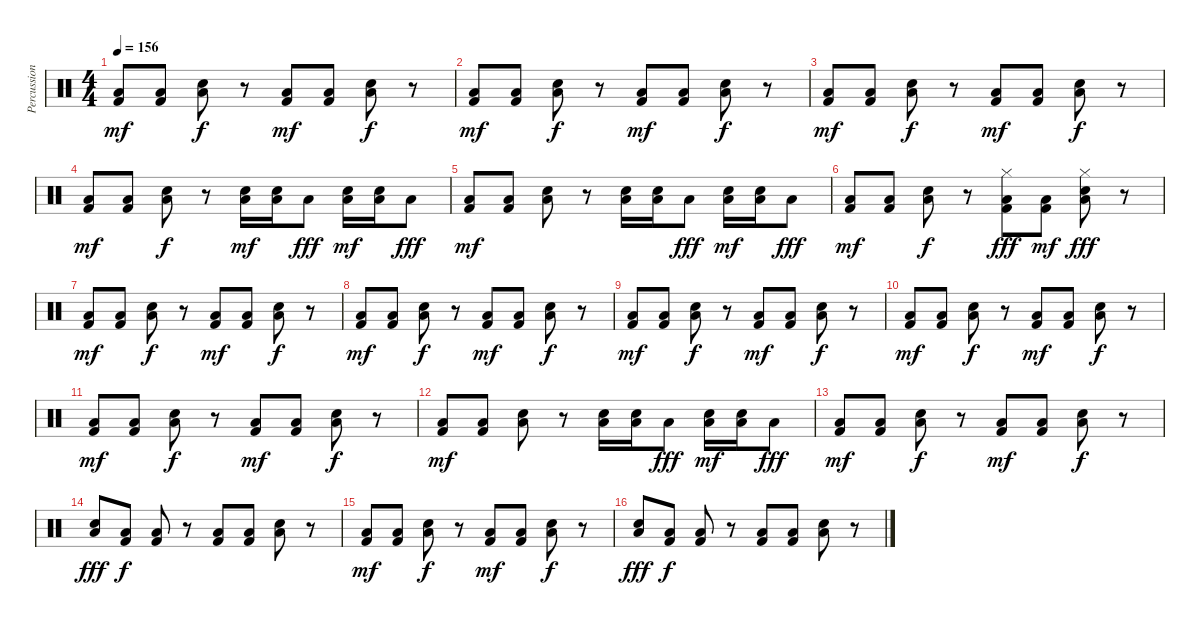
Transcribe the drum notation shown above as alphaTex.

\track ("Percussion" "Percussion") {instrument percussion}
\staff {score}
\articulation defaults
\ts (4 4)
\tempo 156
\clef neutral
\ks c
("Low Floor Tom (hit)" "Kick (hit) 2").8{dy mf} ("Low Floor Tom (hit)" "Kick (hit) 2").8 ("Low Floor Tom (hit)" "Electric Snare (hit)").8{dy f} r.8 ("Low Floor Tom (hit)" "Kick (hit) 2").8{dy mf} ("Low Floor Tom (hit)" "Kick (hit) 2").8 ("Low Floor Tom (hit)" "Electric Snare (hit)").8{dy f} r.8 |
("Low Floor Tom (hit)" "Kick (hit) 2").8{dy mf} ("Low Floor Tom (hit)" "Kick (hit) 2").8 ("Low Floor Tom (hit)" "Electric Snare (hit)").8{dy f} r.8 ("Low Floor Tom (hit)" "Kick (hit) 2").8{dy mf} ("Low Floor Tom (hit)" "Kick (hit) 2").8 ("Low Floor Tom (hit)" "Electric Snare (hit)").8{dy f} r.8 |
("Low Floor Tom (hit)" "Kick (hit) 2").8{dy mf} ("Low Floor Tom (hit)" "Kick (hit) 2").8 ("Low Floor Tom (hit)" "Electric Snare (hit)").8{dy f} r.8 ("Low Floor Tom (hit)" "Kick (hit) 2").8{dy mf} ("Low Floor Tom (hit)" "Kick (hit) 2").8 ("Low Floor Tom (hit)" "Electric Snare (hit)").8{dy f} r.8 |
("Low Floor Tom (hit)" "Kick (hit) 2").8{dy mf} ("Low Floor Tom (hit)" "Kick (hit) 2").8 ("Low Floor Tom (hit)" "Electric Snare (hit)").8{dy f} r.8 ("Low Floor Tom (hit)" "Electric Snare (hit)").16{dy mf} ("Low Floor Tom (hit)" "Electric Snare (hit)").16 "Low Floor Tom (hit)".8{dy fff} ("Low Floor Tom (hit)" "Electric Snare (hit)").16{dy mf} ("Low Floor Tom (hit)" "Electric Snare (hit)").16 "Low Floor Tom (hit)".8{dy fff} |
("Low Floor Tom (hit)" "Kick (hit) 2").8{dy mf} ("Low Floor Tom (hit)" "Kick (hit) 2").8 ("Low Floor Tom (hit)" "Electric Snare (hit)").8 r.8 ("Low Floor Tom (hit)" "Electric Snare (hit)").16 ("Low Floor Tom (hit)" "Electric Snare (hit)").16 "Low Floor Tom (hit)".8{dy fff} ("Low Floor Tom (hit)" "Electric Snare (hit)").16{dy mf} ("Low Floor Tom (hit)" "Electric Snare (hit)").16 "Low Floor Tom (hit)".8{dy fff} |
("Low Floor Tom (hit)" "Kick (hit) 2").8{dy mf} ("Low Floor Tom (hit)" "Kick (hit) 2").8 ("Low Floor Tom (hit)" "Electric Snare (hit)").8{dy f} r.8 ("Low Floor Tom (hit)" "Kick (hit) 2" "Hi-Hat (closed)").8{dy fff} ("Low Floor Tom (hit)" "Kick (hit) 2").8{dy mf} ("Low Floor Tom (hit)" "Electric Snare (hit)" "Hi-Hat (closed)").8{dy fff} r.8 |
("Low Floor Tom (hit)" "Kick (hit) 2").8{dy mf} ("Low Floor Tom (hit)" "Kick (hit) 2").8 ("Low Floor Tom (hit)" "Electric Snare (hit)").8{dy f} r.8 ("Low Floor Tom (hit)" "Kick (hit) 2").8{dy mf} ("Low Floor Tom (hit)" "Kick (hit) 2").8 ("Low Floor Tom (hit)" "Electric Snare (hit)").8{dy f} r.8 |
("Low Floor Tom (hit)" "Kick (hit) 2").8{dy mf} ("Low Floor Tom (hit)" "Kick (hit) 2").8 ("Low Floor Tom (hit)" "Electric Snare (hit)").8{dy f} r.8 ("Low Floor Tom (hit)" "Kick (hit) 2").8{dy mf} ("Low Floor Tom (hit)" "Kick (hit) 2").8 ("Low Floor Tom (hit)" "Electric Snare (hit)").8{dy f} r.8 |
("Low Floor Tom (hit)" "Kick (hit) 2").8{dy mf} ("Low Floor Tom (hit)" "Kick (hit) 2").8 ("Low Floor Tom (hit)" "Electric Snare (hit)").8{dy f} r.8 ("Low Floor Tom (hit)" "Kick (hit) 2").8{dy mf} ("Low Floor Tom (hit)" "Kick (hit) 2").8 ("Low Floor Tom (hit)" "Electric Snare (hit)").8{dy f} r.8 |
("Low Floor Tom (hit)" "Kick (hit) 2").8{dy mf} ("Low Floor Tom (hit)" "Kick (hit) 2").8 ("Low Floor Tom (hit)" "Electric Snare (hit)").8{dy f} r.8 ("Low Floor Tom (hit)" "Kick (hit) 2").8{dy mf} ("Low Floor Tom (hit)" "Kick (hit) 2").8 ("Low Floor Tom (hit)" "Electric Snare (hit)").8{dy f} r.8 |
("Low Floor Tom (hit)" "Kick (hit) 2").8{dy mf} ("Low Floor Tom (hit)" "Kick (hit) 2").8 ("Low Floor Tom (hit)" "Electric Snare (hit)").8{dy f} r.8 ("Low Floor Tom (hit)" "Kick (hit) 2").8{dy mf} ("Low Floor Tom (hit)" "Kick (hit) 2").8 ("Low Floor Tom (hit)" "Electric Snare (hit)").8{dy f} r.8 |
("Low Floor Tom (hit)" "Kick (hit) 2").8{dy mf} ("Low Floor Tom (hit)" "Kick (hit) 2").8 ("Low Floor Tom (hit)" "Electric Snare (hit)").8 r.8 ("Low Floor Tom (hit)" "Electric Snare (hit)").16 ("Low Floor Tom (hit)" "Electric Snare (hit)").16 "Low Floor Tom (hit)".8{dy fff} ("Low Floor Tom (hit)" "Electric Snare (hit)").16{dy mf} ("Low Floor Tom (hit)" "Electric Snare (hit)").16 "Low Floor Tom (hit)".8{dy fff} |
("Low Floor Tom (hit)" "Kick (hit) 2").8{dy mf} ("Low Floor Tom (hit)" "Kick (hit) 2").8 ("Low Floor Tom (hit)" "Electric Snare (hit)").8{dy f} r.8 ("Low Floor Tom (hit)" "Kick (hit) 2").8{dy mf} ("Low Floor Tom (hit)" "Kick (hit) 2").8 ("Low Floor Tom (hit)" "Electric Snare (hit)").8{dy f} r.8 |
("Low Floor Tom (hit)" "Electric Snare (hit)").8{dy fff} ("Low Floor Tom (hit)" "Kick (hit) 2").8{dy f} ("Low Floor Tom (hit)" "Kick (hit) 2").8 r.8 ("Low Floor Tom (hit)" "Kick (hit) 2").8 ("Low Floor Tom (hit)" "Kick (hit) 2").8 ("Low Floor Tom (hit)" "Electric Snare (hit)").8 r.8 |
("Low Floor Tom (hit)" "Kick (hit) 2").8{dy mf} ("Low Floor Tom (hit)" "Kick (hit) 2").8 ("Low Floor Tom (hit)" "Electric Snare (hit)").8{dy f} r.8 ("Low Floor Tom (hit)" "Kick (hit) 2").8{dy mf} ("Low Floor Tom (hit)" "Kick (hit) 2").8 ("Low Floor Tom (hit)" "Electric Snare (hit)").8{dy f} r.8 |
("Low Floor Tom (hit)" "Electric Snare (hit)").8{dy fff} ("Low Floor Tom (hit)" "Kick (hit) 2").8{dy f} ("Low Floor Tom (hit)" "Kick (hit) 2").8 r.8 ("Low Floor Tom (hit)" "Kick (hit) 2").8 ("Low Floor Tom (hit)" "Kick (hit) 2").8 ("Low Floor Tom (hit)" "Electric Snare (hit)").8 r.8
